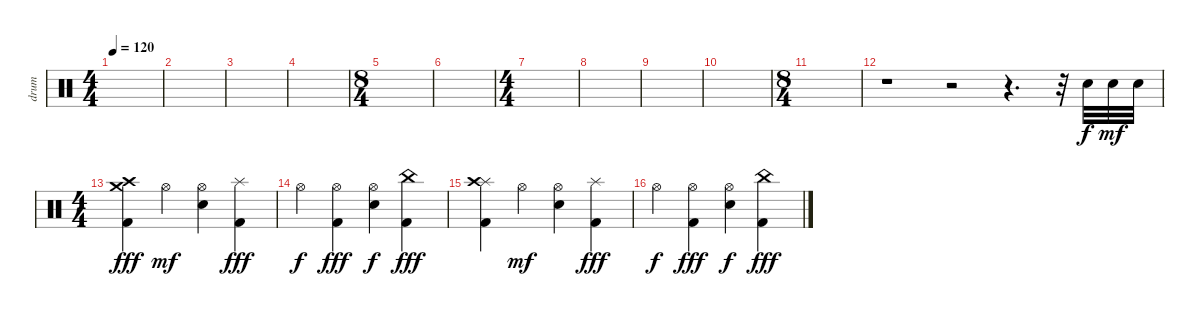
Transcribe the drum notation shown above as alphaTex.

\track ("drum" "drum") {instrument percussion}
\staff {score}
\articulation defaults
\ts (4 4)
\tempo 120
\clef neutral
\ks c
|
|
|
|
\ts (8 4)
|
|
\ts (4 4)
|
|
|
|
\ts (8 4)
|
r.1 r.2 r.4{d} r.32 "Electric Snare (hit)".32 "Electric Snare (hit)".32{dy mf} "Electric Snare (hit)".32 |
\ts (4 4)
("Crash medium (hit)" "Crash high (hit)" "Kick (hit) 2").4{dy fff} "Hi-Hat (open)".4{dy mf} ("Hi-Hat (open)" "Electric Snare (hit)").4 ("Splash (hit)" "Kick (hit) 2").4{dy fff} |
"Hi-Hat (open)".4{dy f} ("Hi-Hat (open)" "Kick (hit) 2").4{dy fff} ("Hi-Hat (open)" "Electric Snare (hit)").4{dy f} ("China (hit)" "Kick (hit) 2").4{dy fff} |
("Splash (hit)" "Crash high (hit)" "Kick (hit) 2").4 "Hi-Hat (open)".4{dy mf} ("Hi-Hat (open)" "Electric Snare (hit)").4 ("Splash (hit)" "Kick (hit) 2").4{dy fff} |
"Hi-Hat (open)".4{dy f} ("Hi-Hat (open)" "Kick (hit) 2").4{dy fff} ("Hi-Hat (open)" "Electric Snare (hit)").4{dy f} ("China (hit)" "Kick (hit) 2").4{dy fff}
